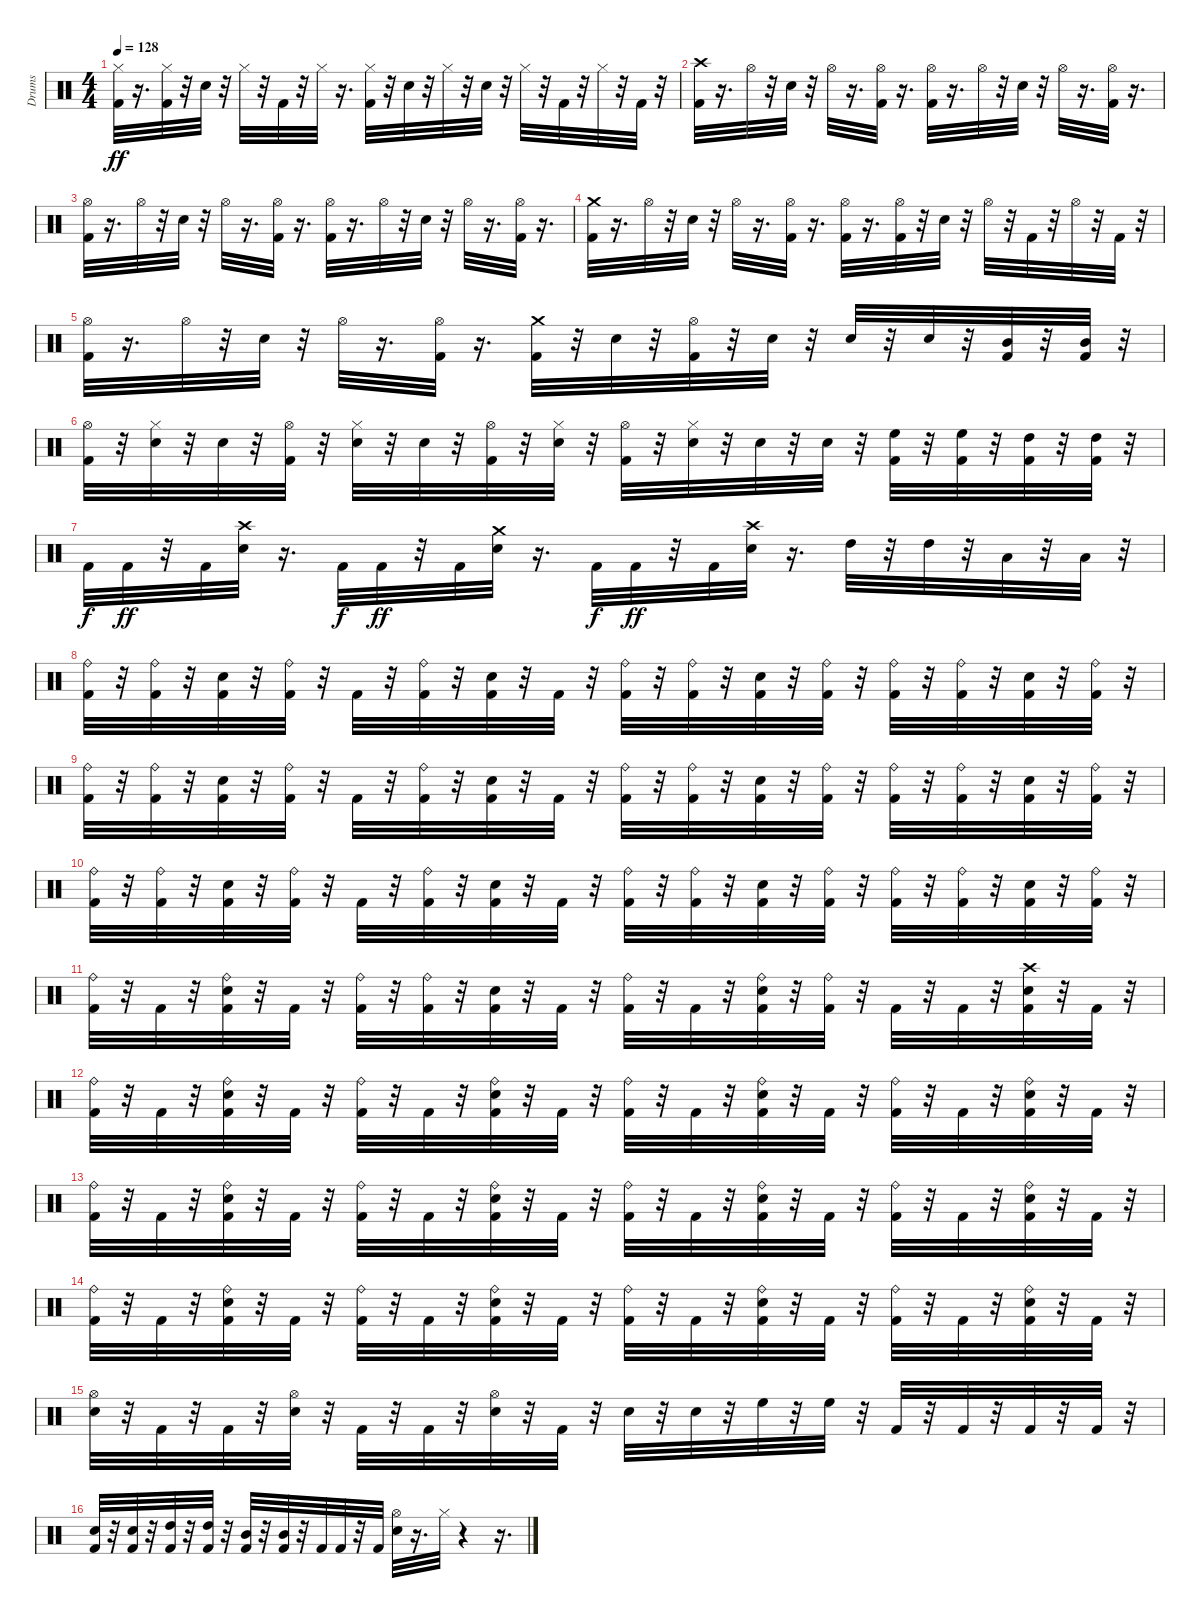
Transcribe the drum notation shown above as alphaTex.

\track ("Drums" "Drums") {instrument percussion}
\staff {score}
\articulation defaults
\ts (4 4)
\tempo 128
\clef neutral
\ks c
("Hi-Hat (closed)" "Kick (hit) 2").32{dy ff} r.16{d} ("Kick (hit) 2" "Hi-Hat (closed)").32 r.32 "Snare (hit) 2".32 r.32 "Hi-Hat (closed)".32 r.32 "Kick (hit) 2".32 r.32 "Hi-Hat (closed)".32 r.16{d} ("Kick (hit) 2" "Hi-Hat (closed)").32 r.32 "Snare (hit) 2".32 r.32 "Hi-Hat (closed)".32 r.32 "Snare (hit) 2".32 r.32 "Hi-Hat (closed)".32 r.32 "Kick (hit) 2".32 r.32 "Hi-Hat (closed)".32 r.32 "Kick (hit) 2".32 r.32 |
("Crash high (hit)" "Kick (hit) 2").32 r.16{d} "Hi-Hat (open)".32 r.32 "Snare (hit) 2".32 r.32 "Hi-Hat (open)".32 r.16{d} ("Hi-Hat (open)" "Kick (hit) 2").32 r.16{d} ("Hi-Hat (open)" "Kick (hit) 2").32 r.16{d} "Hi-Hat (open)".32 r.32 "Snare (hit) 2".32 r.32 "Hi-Hat (open)".32 r.16{d} ("Kick (hit) 2" "Hi-Hat (open)").32 r.16{d} |
("Hi-Hat (open)" "Kick (hit) 2").32 r.16{d} "Hi-Hat (open)".32 r.32 "Snare (hit) 2".32 r.32 "Hi-Hat (open)".32 r.16{d} ("Hi-Hat (open)" "Kick (hit) 2").32 r.16{d} ("Hi-Hat (open)" "Kick (hit) 2").32 r.16{d} "Hi-Hat (open)".32 r.32 "Snare (hit) 2".32 r.32 "Hi-Hat (open)".32 r.16{d} ("Kick (hit) 2" "Hi-Hat (open)").32 r.16{d} |
("Crash medium (hit)" "Kick (hit) 2").32 r.16{d} "Hi-Hat (open)".32 r.32 "Snare (hit) 2".32 r.32 "Hi-Hat (open)".32 r.16{d} ("Hi-Hat (open)" "Kick (hit) 2").32 r.16{d} ("Hi-Hat (open)" "Kick (hit) 2").32 r.16{d} ("Kick (hit) 2" "Hi-Hat (open)").32 r.32 "Snare (hit) 2".32 r.32 "Hi-Hat (open)".32 r.32 "Kick (hit) 2".32 r.32 "Hi-Hat (open)".32 r.32 "Kick (hit) 2".32 r.32 |
("Kick (hit) 2" "Hi-Hat (open)").32 r.16{d} "Hi-Hat (open)".32 r.32 "Snare (hit) 2".32 r.32 "Hi-Hat (open)".32 r.16{d} ("Kick (hit) 2" "Hi-Hat (open)").32 r.16{d} ("Kick (hit) 2" "Crash medium (hit)").32 r.32 "Snare (hit) 2".32 r.32 ("Hi-Hat (open)" "Kick (hit) 2").32 r.32 "Snare (hit) 2".32 r.32 "Snare (hit) 2".32 r.32 "Snare (hit) 2".32 r.32 ("Mid Tom (hit)" "Kick (hit) 2").32 r.32 ("Kick (hit) 2" "Mid Tom (hit)").32 r.32 |
("Hi-Hat (open)" "Kick (hit) 2").32 r.32 ("Hi-Hat (closed)" "Snare (hit) 2").32 r.32 "Snare (hit) 2".32 r.32 ("Hi-Hat (open)" "Kick (hit) 2").32 r.32 ("Hi-Hat (closed)" "Snare (hit) 2").32 r.32 "Snare (hit) 2".32 r.32 ("Hi-Hat (open)" "Kick (hit) 2").32 r.32 ("Hi-Hat (closed)" "Snare (hit) 2").32 r.32 ("Kick (hit) 2" "Hi-Hat (open)").32 r.32 ("Hi-Hat (closed)" "Snare (hit) 2").32 r.32 "Snare (hit) 2".32 r.32 "Snare (hit) 2".32 r.32 ("Kick (hit) 2" "High Floor Tom (hit)").32 r.32 ("High Floor Tom (hit)" "Kick (hit) 2").32 r.32 ("Kick (hit) 2" "High Tom (hit)").32 r.32 ("Kick (hit) 2" "High Tom (hit)").32 r.32 |
"Kick (hit) 2".32{dy f} "Kick (hit) 2".32{dy ff} r.32 "Kick (hit) 2".32 ("Crash high (hit)" "Snare (hit) 2").32 r.16{d} "Kick (hit) 2".32{dy f} "Kick (hit) 2".32{dy ff} r.32 "Kick (hit) 2".32 ("Crash medium (hit)" "Snare (hit) 2").32 r.16{d} "Kick (hit) 2".32{dy f} "Kick (hit) 2".32{dy ff} r.32 "Kick (hit) 2".32 ("Crash high (hit)" "Snare (hit) 2").32 r.16{d} "High Tom (hit)".32 r.32 "High Tom (hit)".32 r.32 "Low Tom (hit)".32 r.32 "Low Tom (hit)".32 r.32 |
("Kick (hit) 2" "Ride (bell)").32 r.32 ("Kick (hit) 2" "Ride (bell)").32 r.32 ("Kick (hit) 2" "Snare (hit) 2").32 r.32 ("Kick (hit) 2" "Ride (bell)").32 r.32 "Kick (hit) 2".32 r.32 ("Ride (bell)" "Kick (hit) 2").32 r.32 ("Kick (hit) 2" "Snare (hit) 2").32 r.32 "Kick (hit) 2".32 r.32 ("Ride (bell)" "Kick (hit) 2").32 r.32 ("Ride (bell)" "Kick (hit) 2").32 r.32 ("Kick (hit) 2" "Snare (hit) 2").32 r.32 ("Ride (bell)" "Kick (hit) 2").32 r.32 ("Kick (hit) 2" "Ride (bell)").32 r.32 ("Ride (bell)" "Kick (hit) 2").32 r.32 ("Snare (hit) 2" "Kick (hit) 2").32 r.32 ("Kick (hit) 2" "Ride (bell)").32 r.32 |
("Kick (hit) 2" "Ride (bell)").32 r.32 ("Kick (hit) 2" "Ride (bell)").32 r.32 ("Kick (hit) 2" "Snare (hit) 2").32 r.32 ("Kick (hit) 2" "Ride (bell)").32 r.32 "Kick (hit) 2".32 r.32 ("Ride (bell)" "Kick (hit) 2").32 r.32 ("Kick (hit) 2" "Snare (hit) 2").32 r.32 "Kick (hit) 2".32 r.32 ("Ride (bell)" "Kick (hit) 2").32 r.32 ("Ride (bell)" "Kick (hit) 2").32 r.32 ("Kick (hit) 2" "Snare (hit) 2").32 r.32 ("Ride (bell)" "Kick (hit) 2").32 r.32 ("Kick (hit) 2" "Ride (bell)").32 r.32 ("Ride (bell)" "Kick (hit) 2").32 r.32 ("Snare (hit) 2" "Kick (hit) 2").32 r.32 ("Kick (hit) 2" "Ride (bell)").32 r.32 |
("Kick (hit) 2" "Ride (bell)").32 r.32 ("Kick (hit) 2" "Ride (bell)").32 r.32 ("Kick (hit) 2" "Snare (hit) 2").32 r.32 ("Kick (hit) 2" "Ride (bell)").32 r.32 "Kick (hit) 2".32 r.32 ("Ride (bell)" "Kick (hit) 2").32 r.32 ("Kick (hit) 2" "Snare (hit) 2").32 r.32 "Kick (hit) 2".32 r.32 ("Ride (bell)" "Kick (hit) 2").32 r.32 ("Ride (bell)" "Kick (hit) 2").32 r.32 ("Kick (hit) 2" "Snare (hit) 2").32 r.32 ("Ride (bell)" "Kick (hit) 2").32 r.32 ("Kick (hit) 2" "Ride (bell)").32 r.32 ("Ride (bell)" "Kick (hit) 2").32 r.32 ("Snare (hit) 2" "Kick (hit) 2").32 r.32 ("Kick (hit) 2" "Ride (bell)").32 r.32 |
("Kick (hit) 2" "Ride (bell)").32 r.32 "Kick (hit) 2".32 r.32 ("Kick (hit) 2" "Snare (hit) 2" "Ride (bell)").32 r.32 "Kick (hit) 2".32 r.32 ("Kick (hit) 2" "Ride (bell)").32 r.32 ("Ride (bell)" "Kick (hit) 2").32 r.32 ("Kick (hit) 2" "Snare (hit) 2").32 r.32 "Kick (hit) 2".32 r.32 ("Ride (bell)" "Kick (hit) 2").32 r.32 "Kick (hit) 2".32 r.32 ("Kick (hit) 2" "Snare (hit) 2" "Ride (bell)").32 r.32 ("Kick (hit) 2" "Ride (bell)").32 r.32 "Kick (hit) 2".32 r.32 "Kick (hit) 2".32 r.32 ("Crash high (hit)" "Snare (hit) 2" "Kick (hit) 2").32 r.32 "Kick (hit) 2".32 r.32 |
("Kick (hit) 2" "Ride (bell)").32 r.32 "Kick (hit) 2".32 r.32 ("Ride (bell)" "Kick (hit) 2" "Snare (hit) 2").32 r.32 "Kick (hit) 2".32 r.32 ("Ride (bell)" "Kick (hit) 2").32 r.32 "Kick (hit) 2".32 r.32 ("Kick (hit) 2" "Snare (hit) 2" "Ride (bell)").32 r.32 "Kick (hit) 2".32 r.32 ("Kick (hit) 2" "Ride (bell)").32 r.32 "Kick (hit) 2".32 r.32 ("Snare (hit) 2" "Kick (hit) 2" "Ride (bell)").32 r.32 "Kick (hit) 2".32 r.32 ("Kick (hit) 2" "Ride (bell)").32 r.32 "Kick (hit) 2".32 r.32 ("Ride (bell)" "Kick (hit) 2" "Snare (hit) 2").32 r.32 "Kick (hit) 2".32 r.32 |
("Ride (bell)" "Kick (hit) 2").32 r.32 "Kick (hit) 2".32 r.32 ("Kick (hit) 2" "Snare (hit) 2" "Ride (bell)").32 r.32 "Kick (hit) 2".32 r.32 ("Kick (hit) 2" "Ride (bell)").32 r.32 "Kick (hit) 2".32 r.32 ("Snare (hit) 2" "Kick (hit) 2" "Ride (bell)").32 r.32 "Kick (hit) 2".32 r.32 ("Kick (hit) 2" "Ride (bell)").32 r.32 "Kick (hit) 2".32 r.32 ("Ride (bell)" "Kick (hit) 2" "Snare (hit) 2").32 r.32 "Kick (hit) 2".32 r.32 ("Ride (bell)" "Kick (hit) 2").32 r.32 "Kick (hit) 2".32 r.32 ("Kick (hit) 2" "Snare (hit) 2" "Ride (bell)").32 r.32 "Kick (hit) 2".32 r.32 |
("Kick (hit) 2" "Ride (bell)").32 r.32 "Kick (hit) 2".32 r.32 ("Snare (hit) 2" "Kick (hit) 2" "Ride (bell)").32 r.32 "Kick (hit) 2".32 r.32 ("Kick (hit) 2" "Ride (bell)").32 r.32 "Kick (hit) 2".32 r.32 ("Ride (bell)" "Kick (hit) 2" "Snare (hit) 2").32 r.32 "Kick (hit) 2".32 r.32 ("Ride (bell)" "Kick (hit) 2").32 r.32 "Kick (hit) 2".32 r.32 ("Kick (hit) 2" "Snare (hit) 2" "Ride (bell)").32 r.32 "Kick (hit) 2".32 r.32 ("Kick (hit) 2" "Ride (bell)").32 r.32 "Kick (hit) 2".32 r.32 ("Snare (hit) 2" "Kick (hit) 2" "Ride (bell)").32 r.32 "Kick (hit) 2".32 r.32 |
("Hi-Hat (open)" "Snare (hit) 2").32 r.32 "Kick (hit) 2".32 r.32 "Kick (hit) 2".32 r.32 ("Hi-Hat (open)" "Snare (hit) 2").32 r.32 "Kick (hit) 2".32 r.32 "Kick (hit) 2".32 r.32 ("Hi-Hat (open)" "Snare (hit) 2").32 r.32 "Kick (hit) 2".32 r.32 "Snare (hit) 2".32 r.32 "Snare (hit) 2".32 r.32 "High Floor Tom (hit)".32 r.32 "High Floor Tom (hit)".32 r.32 "Kick (hit) 2".32 r.32 "Kick (hit) 2".32 r.32 "Kick (hit) 2".32 r.32 "Kick (hit) 2".32 r.32 |
("Kick (hit) 2" "Snare (hit) 2").32 r.32 ("Kick (hit) 2" "Snare (hit) 2").32 r.32 ("Kick (hit) 2" "High Tom (hit)").32 r.32 ("Kick (hit) 2" "High Tom (hit)").32 r.32 ("Kick (hit) 2" "Mid Tom (hit)").32 r.32 ("Kick (hit) 2" "Mid Tom (hit)").32 r.32 "Kick (hit) 2".32 "Kick (hit) 2".32 r.32 "Kick (hit) 2".32 ("Hi-Hat (open)" "Snare (hit) 2").32 r.16{d} "Hi-Hat (closed)".32 r.4 r.16{d}
